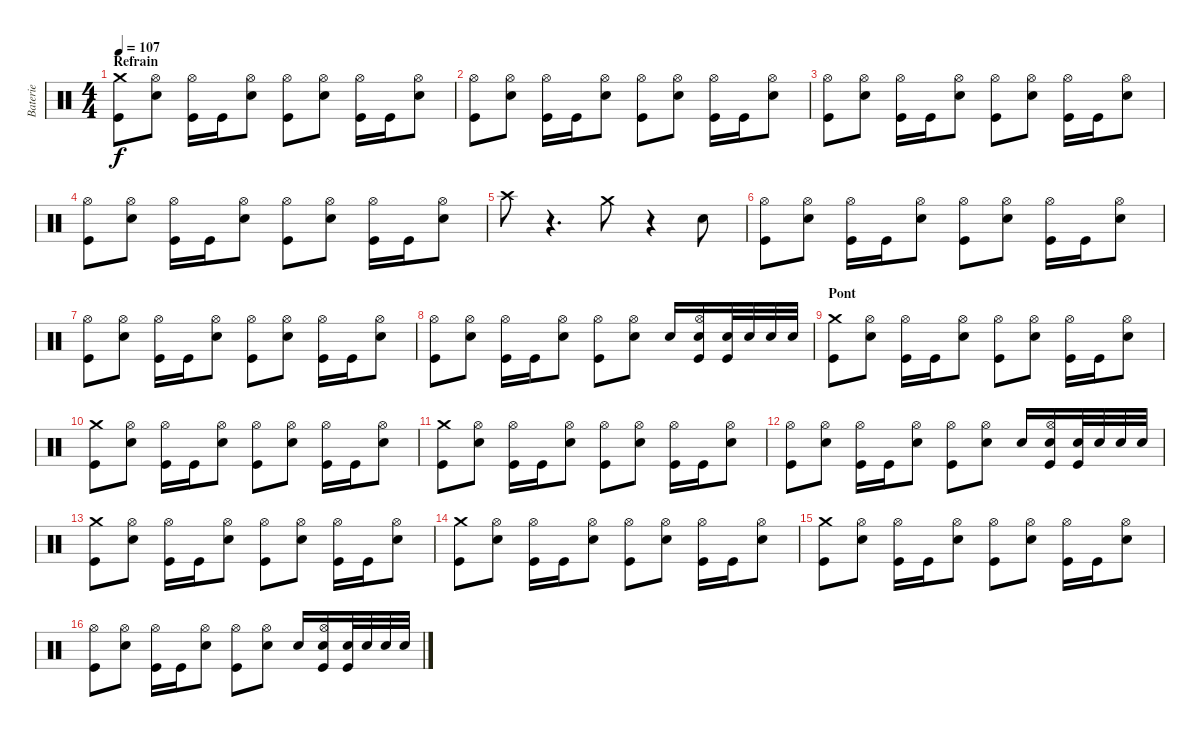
\track ("Baterie" "Baterie") {instrument percussion}
\staff {score}
\articulation defaults
\ts (4 4)
\section ("" "Refrain")
\tempo 107
\clef neutral
\ks c
("Crash medium (hit)" "Kick (hit)").8{dy f} ("Hi-Hat (open)" "Electric Snare (hit)").8 ("Hi-Hat (open)" "Kick (hit)").16 "Kick (hit)".16 ("Hi-Hat (open)" "Electric Snare (hit)").8 ("Hi-Hat (open)" "Kick (hit)").8 ("Hi-Hat (open)" "Electric Snare (hit)").8 ("Hi-Hat (open)" "Kick (hit)").16 "Kick (hit)".16 ("Hi-Hat (open)" "Electric Snare (hit)").8 |
("Hi-Hat (open)" "Kick (hit)").8 ("Hi-Hat (open)" "Electric Snare (hit)").8 ("Hi-Hat (open)" "Kick (hit)").16 "Kick (hit)".16 ("Hi-Hat (open)" "Electric Snare (hit)").8 ("Hi-Hat (open)" "Kick (hit)").8 ("Hi-Hat (open)" "Electric Snare (hit)").8 ("Hi-Hat (open)" "Kick (hit)").16 "Kick (hit)".16 ("Hi-Hat (open)" "Electric Snare (hit)").8 |
("Hi-Hat (open)" "Kick (hit)").8 ("Hi-Hat (open)" "Electric Snare (hit)").8 ("Hi-Hat (open)" "Kick (hit)").16 "Kick (hit)".16 ("Hi-Hat (open)" "Electric Snare (hit)").8 ("Hi-Hat (open)" "Kick (hit)").8 ("Hi-Hat (open)" "Electric Snare (hit)").8 ("Hi-Hat (open)" "Kick (hit)").16 "Kick (hit)".16 ("Hi-Hat (open)" "Electric Snare (hit)").8 |
("Hi-Hat (open)" "Kick (hit)").8 ("Hi-Hat (open)" "Electric Snare (hit)").8 ("Hi-Hat (open)" "Kick (hit)").16 "Kick (hit)".16 ("Hi-Hat (open)" "Electric Snare (hit)").8 ("Hi-Hat (open)" "Kick (hit)").8 ("Hi-Hat (open)" "Electric Snare (hit)").8 ("Hi-Hat (open)" "Kick (hit)").16 "Kick (hit)".16 ("Hi-Hat (open)" "Electric Snare (hit)").8 |
"Crash high (hit)".8 r.4{d} "Crash medium (hit)".8 r.4 "Electric Snare (hit)".8 |
("Hi-Hat (open)" "Kick (hit)").8 ("Hi-Hat (open)" "Electric Snare (hit)").8 ("Hi-Hat (open)" "Kick (hit)").16 "Kick (hit)".16 ("Hi-Hat (open)" "Electric Snare (hit)").8 ("Hi-Hat (open)" "Kick (hit)").8 ("Hi-Hat (open)" "Electric Snare (hit)").8 ("Hi-Hat (open)" "Kick (hit)").16 "Kick (hit)".16 ("Hi-Hat (open)" "Electric Snare (hit)").8 |
("Hi-Hat (open)" "Kick (hit)").8 ("Hi-Hat (open)" "Electric Snare (hit)").8 ("Hi-Hat (open)" "Kick (hit)").16 "Kick (hit)".16 ("Hi-Hat (open)" "Electric Snare (hit)").8 ("Hi-Hat (open)" "Kick (hit)").8 ("Hi-Hat (open)" "Electric Snare (hit)").8 ("Hi-Hat (open)" "Kick (hit)").16 "Kick (hit)".16 ("Hi-Hat (open)" "Electric Snare (hit)").8 |
("Hi-Hat (open)" "Kick (hit)").8 ("Hi-Hat (open)" "Electric Snare (hit)").8 ("Hi-Hat (open)" "Kick (hit)").16 "Kick (hit)".16 ("Hi-Hat (open)" "Electric Snare (hit)").8 ("Hi-Hat (open)" "Kick (hit)").8 ("Hi-Hat (open)" "Electric Snare (hit)").8 "Electric Snare (hit)".16 ("Hi-Hat (open)" "Electric Snare (hit)" "Kick (hit)").16 ("Electric Snare (hit)" "Kick (hit)").32 "Electric Snare (hit)".32 "Electric Snare (hit)".32 "Electric Snare (hit)".32 |
\section ("" "Pont")
("Crash medium (hit)" "Kick (hit)").8 ("Hi-Hat (open)" "Electric Snare (hit)").8 ("Hi-Hat (open)" "Kick (hit)").16 "Kick (hit)".16 ("Hi-Hat (open)" "Electric Snare (hit)").8 ("Hi-Hat (open)" "Kick (hit)").8 ("Hi-Hat (open)" "Electric Snare (hit)").8 ("Hi-Hat (open)" "Kick (hit)").16 "Kick (hit)".16 ("Hi-Hat (open)" "Electric Snare (hit)").8 |
("Crash medium (hit)" "Kick (hit)").8 ("Hi-Hat (open)" "Electric Snare (hit)").8 ("Hi-Hat (open)" "Kick (hit)").16 "Kick (hit)".16 ("Hi-Hat (open)" "Electric Snare (hit)").8 ("Hi-Hat (open)" "Kick (hit)").8 ("Hi-Hat (open)" "Electric Snare (hit)").8 ("Hi-Hat (open)" "Kick (hit)").16 "Kick (hit)".16 ("Hi-Hat (open)" "Electric Snare (hit)").8 |
("Crash medium (hit)" "Kick (hit)").8 ("Hi-Hat (open)" "Electric Snare (hit)").8 ("Hi-Hat (open)" "Kick (hit)").16 "Kick (hit)".16 ("Hi-Hat (open)" "Electric Snare (hit)").8 ("Hi-Hat (open)" "Kick (hit)").8 ("Hi-Hat (open)" "Electric Snare (hit)").8 ("Hi-Hat (open)" "Kick (hit)").16 "Kick (hit)".16 ("Hi-Hat (open)" "Electric Snare (hit)").8 |
("Hi-Hat (open)" "Kick (hit)").8 ("Hi-Hat (open)" "Electric Snare (hit)").8 ("Hi-Hat (open)" "Kick (hit)").16 "Kick (hit)".16 ("Hi-Hat (open)" "Electric Snare (hit)").8 ("Hi-Hat (open)" "Kick (hit)").8 ("Hi-Hat (open)" "Electric Snare (hit)").8 "Electric Snare (hit)".16 ("Hi-Hat (open)" "Electric Snare (hit)" "Kick (hit)").16 ("Electric Snare (hit)" "Kick (hit)").32 "Electric Snare (hit)".32 "Electric Snare (hit)".32 "Electric Snare (hit)".32 |
("Crash medium (hit)" "Kick (hit)").8 ("Hi-Hat (open)" "Electric Snare (hit)").8 ("Hi-Hat (open)" "Kick (hit)").16 "Kick (hit)".16 ("Hi-Hat (open)" "Electric Snare (hit)").8 ("Hi-Hat (open)" "Kick (hit)").8 ("Hi-Hat (open)" "Electric Snare (hit)").8 ("Hi-Hat (open)" "Kick (hit)").16 "Kick (hit)".16 ("Hi-Hat (open)" "Electric Snare (hit)").8 |
("Crash medium (hit)" "Kick (hit)").8 ("Hi-Hat (open)" "Electric Snare (hit)").8 ("Hi-Hat (open)" "Kick (hit)").16 "Kick (hit)".16 ("Hi-Hat (open)" "Electric Snare (hit)").8 ("Hi-Hat (open)" "Kick (hit)").8 ("Hi-Hat (open)" "Electric Snare (hit)").8 ("Hi-Hat (open)" "Kick (hit)").16 "Kick (hit)".16 ("Hi-Hat (open)" "Electric Snare (hit)").8 |
("Crash medium (hit)" "Kick (hit)").8 ("Hi-Hat (open)" "Electric Snare (hit)").8 ("Hi-Hat (open)" "Kick (hit)").16 "Kick (hit)".16 ("Hi-Hat (open)" "Electric Snare (hit)").8 ("Hi-Hat (open)" "Kick (hit)").8 ("Hi-Hat (open)" "Electric Snare (hit)").8 ("Hi-Hat (open)" "Kick (hit)").16 "Kick (hit)".16 ("Hi-Hat (open)" "Electric Snare (hit)").8 |
("Hi-Hat (open)" "Kick (hit)").8 ("Hi-Hat (open)" "Electric Snare (hit)").8 ("Hi-Hat (open)" "Kick (hit)").16 "Kick (hit)".16 ("Hi-Hat (open)" "Electric Snare (hit)").8 ("Hi-Hat (open)" "Kick (hit)").8 ("Hi-Hat (open)" "Electric Snare (hit)").8 "Electric Snare (hit)".16 ("Hi-Hat (open)" "Electric Snare (hit)" "Kick (hit)").16 ("Electric Snare (hit)" "Kick (hit)").32 "Electric Snare (hit)".32 "Electric Snare (hit)".32 "Electric Snare (hit)".32
